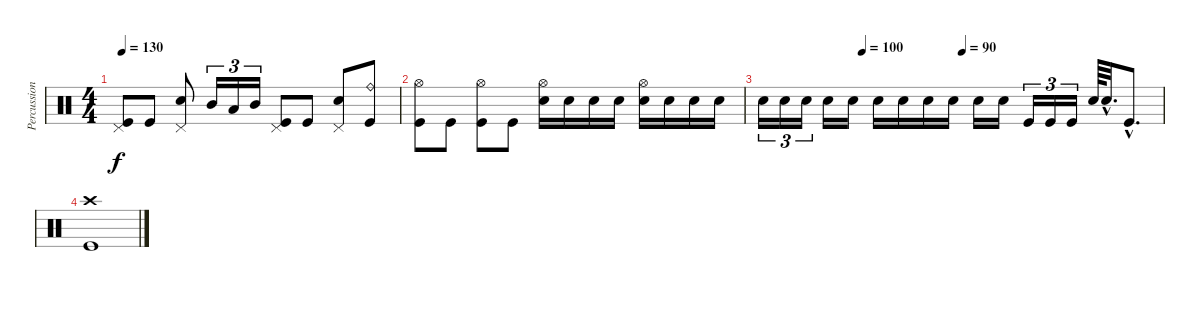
\track ("Percussion" "Percussion") {instrument percussion}
\staff {score}
\articulation defaults
\ts (4 4)
\tempo 130
\clef neutral
\ks c
("Pedal Hi-Hat (hit)" "Kick (hit)").8{dy f} "Kick (hit)".8 ("Pedal Hi-Hat (hit)" "Electric Snare (hit)").8 "Mid Tom (hit)".16{tu (3 2)} "Low Tom (hit)".16{tu (3 2)} "Mid Tom (hit)".16{tu (3 2)} ("Pedal Hi-Hat (hit)" "Kick (hit)").8 "Kick (hit)".8 ("Pedal Hi-Hat (hit)" "Electric Snare (hit)").8 ("Ride (bell)" "Kick (hit)").8 |
("Hi-Hat (open)" "Kick (hit)").8 "Kick (hit)".8 ("Hi-Hat (open)" "Kick (hit)").8 "Kick (hit)".8 ("Hi-Hat (open)" "Electric Snare (hit)").16 "Electric Snare (hit)".16 "Electric Snare (hit)".16 "Electric Snare (hit)".16 ("Hi-Hat (open)" "Electric Snare (hit)").16 "Electric Snare (hit)".16 "Electric Snare (hit)".16 "Electric Snare (hit)".16 |
\tempo (100 0.25)
\tempo (90 0.5)
"Electric Snare (hit)".16{tu (3 2)} "Electric Snare (hit)".16{tu (3 2)} "Electric Snare (hit)".16{tu (3 2)} "Electric Snare (hit)".16 "Electric Snare (hit)".16 "Electric Snare (hit)".16 "Electric Snare (hit)".16 "Electric Snare (hit)".16 "Electric Snare (hit)".16 "Electric Snare (hit)".16 "Electric Snare (hit)".16 "Kick (hit)".16{tu (3 2)} "Kick (hit)".16{tu (3 2)} "Kick (hit)".16{tu (3 2)} "Electric Snare (hit)".64 "Electric Snare (hit)"{hac}.32{d} "Kick (hit)"{hac}.8{d} |
("Crash high (hit)" "Kick (hit)").1
